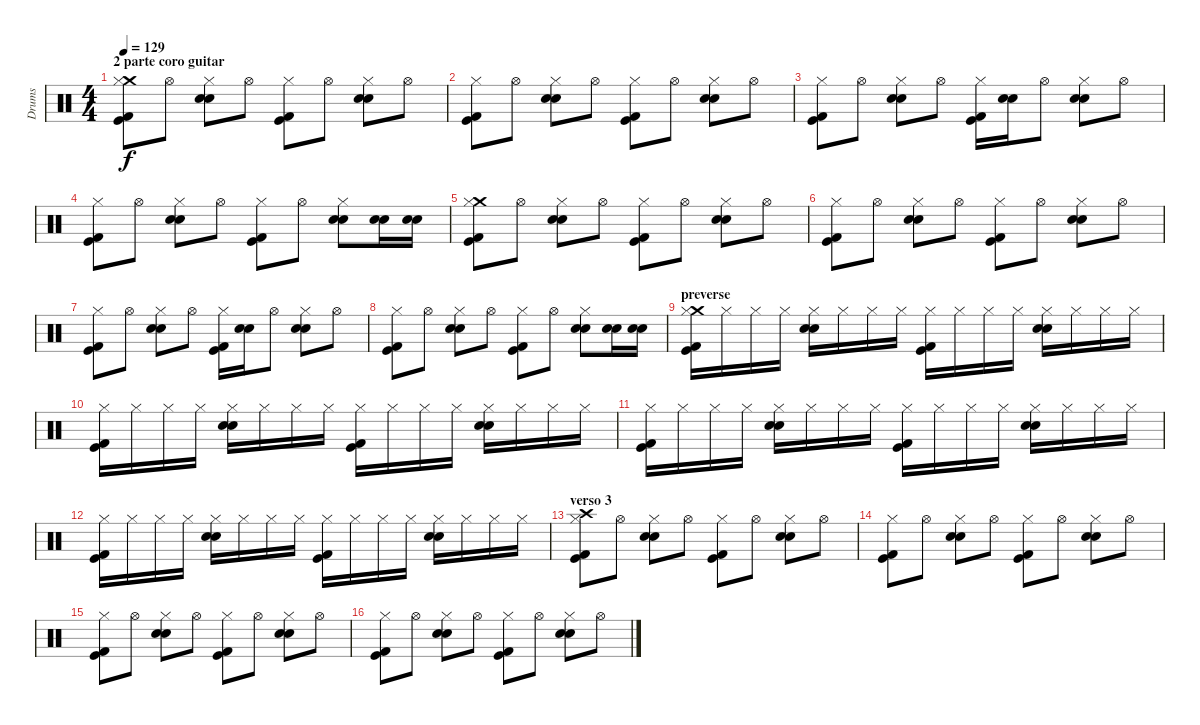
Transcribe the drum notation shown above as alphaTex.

\track ("Drums" "Drums") {instrument percussion}
\staff {score}
\articulation defaults
\ts (4 4)
\section ("" "2 parte coro guitar")
\tempo 129
\clef neutral
\ks c
("Crash medium (hit)" "Hi-Hat (closed)" "Kick (hit) 2" "Kick (hit)").8{dy f} "Hi-Hat (open)".8 ("Hi-Hat (closed)" "Snare (hit) 2" "Snare (hit) 2").8 "Hi-Hat (open)".8 ("Hi-Hat (closed)" "Kick (hit) 2" "Kick (hit)").8 "Hi-Hat (open)".8 ("Hi-Hat (closed)" "Snare (hit) 2" "Snare (hit) 2").8 "Hi-Hat (open)".8 |
("Hi-Hat (closed)" "Kick (hit) 2" "Kick (hit)").8 "Hi-Hat (open)".8 ("Hi-Hat (closed)" "Snare (hit) 2" "Snare (hit) 2").8 "Hi-Hat (open)".8 ("Hi-Hat (closed)" "Kick (hit) 2" "Kick (hit)").8 "Hi-Hat (open)".8 ("Hi-Hat (closed)" "Snare (hit) 2" "Snare (hit) 2").8 "Hi-Hat (open)".8 |
("Hi-Hat (closed)" "Kick (hit) 2" "Kick (hit)").8 "Hi-Hat (open)".8 ("Hi-Hat (closed)" "Snare (hit) 2" "Snare (hit) 2").8 "Hi-Hat (open)".8 ("Hi-Hat (closed)" "Kick (hit) 2" "Kick (hit)").16 ("Snare (hit) 2" "Snare (hit) 2").16 "Hi-Hat (open)".8 ("Hi-Hat (closed)" "Snare (hit) 2" "Snare (hit) 2").8 "Hi-Hat (open)".8 |
("Hi-Hat (closed)" "Kick (hit) 2" "Kick (hit)").8 "Hi-Hat (open)".8 ("Hi-Hat (closed)" "Snare (hit) 2" "Snare (hit) 2").8 "Hi-Hat (open)".8 ("Hi-Hat (closed)" "Kick (hit) 2" "Kick (hit)").8 "Hi-Hat (open)".8 ("Hi-Hat (closed)" "Snare (hit) 2" "Snare (hit) 2").8 ("Snare (hit) 2" "Snare (hit) 2").16 ("Snare (hit) 2" "Snare (hit) 2").16 |
("Crash medium (hit)" "Hi-Hat (closed)" "Kick (hit) 2" "Kick (hit)").8 "Hi-Hat (open)".8 ("Hi-Hat (closed)" "Snare (hit) 2" "Snare (hit) 2").8 "Hi-Hat (open)".8 ("Hi-Hat (closed)" "Kick (hit) 2" "Kick (hit)").8 "Hi-Hat (open)".8 ("Hi-Hat (closed)" "Snare (hit) 2" "Snare (hit) 2").8 "Hi-Hat (open)".8 |
("Hi-Hat (closed)" "Kick (hit) 2" "Kick (hit)").8 "Hi-Hat (open)".8 ("Hi-Hat (closed)" "Snare (hit) 2" "Snare (hit) 2").8 "Hi-Hat (open)".8 ("Hi-Hat (closed)" "Kick (hit) 2" "Kick (hit)").8 "Hi-Hat (open)".8 ("Hi-Hat (closed)" "Snare (hit) 2" "Snare (hit) 2").8 "Hi-Hat (open)".8 |
("Hi-Hat (closed)" "Kick (hit) 2" "Kick (hit)").8 "Hi-Hat (open)".8 ("Hi-Hat (closed)" "Snare (hit) 2" "Snare (hit) 2").8 "Hi-Hat (open)".8 ("Hi-Hat (closed)" "Kick (hit) 2" "Kick (hit)").16 ("Snare (hit) 2" "Snare (hit) 2").16 "Hi-Hat (open)".8 ("Hi-Hat (closed)" "Snare (hit) 2" "Snare (hit) 2").8 "Hi-Hat (open)".8 |
("Hi-Hat (closed)" "Kick (hit) 2" "Kick (hit)").8 "Hi-Hat (open)".8 ("Hi-Hat (closed)" "Snare (hit) 2" "Snare (hit) 2").8 "Hi-Hat (open)".8 ("Hi-Hat (closed)" "Kick (hit) 2" "Kick (hit)").8 "Hi-Hat (open)".8 ("Hi-Hat (closed)" "Snare (hit) 2" "Snare (hit) 2").8 ("Snare (hit) 2" "Snare (hit) 2").16 ("Snare (hit) 2" "Snare (hit) 2").16 |
\section ("" "preverse")
("Crash medium (hit)" "Hi-Hat (closed)" "Kick (hit) 2" "Kick (hit)").16 "Hi-Hat (closed)".16 "Hi-Hat (closed)".16 "Hi-Hat (closed)".16 ("Hi-Hat (closed)" "Snare (hit) 2" "Snare (hit) 2").16 "Hi-Hat (closed)".16 "Hi-Hat (closed)".16 "Hi-Hat (closed)".16 ("Hi-Hat (closed)" "Kick (hit) 2" "Kick (hit)").16 "Hi-Hat (closed)".16 "Hi-Hat (closed)".16 "Hi-Hat (closed)".16 ("Hi-Hat (closed)" "Snare (hit) 2" "Snare (hit) 2").16 "Hi-Hat (closed)".16 "Hi-Hat (closed)".16 "Hi-Hat (closed)".16 |
("Hi-Hat (closed)" "Kick (hit) 2" "Kick (hit)").16 "Hi-Hat (closed)".16 "Hi-Hat (closed)".16 "Hi-Hat (closed)".16 ("Hi-Hat (closed)" "Snare (hit) 2" "Snare (hit) 2").16 "Hi-Hat (closed)".16 "Hi-Hat (closed)".16 "Hi-Hat (closed)".16 ("Hi-Hat (closed)" "Kick (hit) 2" "Kick (hit)").16 "Hi-Hat (closed)".16 "Hi-Hat (closed)".16 "Hi-Hat (closed)".16 ("Hi-Hat (closed)" "Snare (hit) 2" "Snare (hit) 2").16 "Hi-Hat (closed)".16 "Hi-Hat (closed)".16 "Hi-Hat (closed)".16 |
("Hi-Hat (closed)" "Kick (hit) 2" "Kick (hit)").16 "Hi-Hat (closed)".16 "Hi-Hat (closed)".16 "Hi-Hat (closed)".16 ("Hi-Hat (closed)" "Snare (hit) 2" "Snare (hit) 2").16 "Hi-Hat (closed)".16 "Hi-Hat (closed)".16 "Hi-Hat (closed)".16 ("Hi-Hat (closed)" "Kick (hit) 2" "Kick (hit)").16 "Hi-Hat (closed)".16 "Hi-Hat (closed)".16 "Hi-Hat (closed)".16 ("Hi-Hat (closed)" "Snare (hit) 2" "Snare (hit) 2").16 "Hi-Hat (closed)".16 "Hi-Hat (closed)".16 "Hi-Hat (closed)".16 |
("Hi-Hat (closed)" "Kick (hit) 2" "Kick (hit)").16 "Hi-Hat (closed)".16 "Hi-Hat (closed)".16 "Hi-Hat (closed)".16 ("Hi-Hat (closed)" "Snare (hit) 2" "Snare (hit) 2").16 "Hi-Hat (closed)".16 "Hi-Hat (closed)".16 "Hi-Hat (closed)".16 ("Hi-Hat (closed)" "Kick (hit) 2" "Kick (hit)").16 "Hi-Hat (closed)".16 "Hi-Hat (closed)".16 "Hi-Hat (closed)".16 ("Hi-Hat (closed)" "Snare (hit) 2" "Snare (hit) 2").16 "Hi-Hat (closed)".16 "Hi-Hat (closed)".16 "Hi-Hat (closed)".16 |
\section ("" "verso 3")
("Crash high (hit)" "Hi-Hat (closed)" "Kick (hit) 2" "Kick (hit)").8 "Hi-Hat (open)".8 ("Hi-Hat (closed)" "Snare (hit) 2" "Snare (hit) 2").8 "Hi-Hat (open)".8 ("Hi-Hat (closed)" "Kick (hit) 2" "Kick (hit)").8 "Hi-Hat (open)".8 ("Hi-Hat (closed)" "Snare (hit) 2" "Snare (hit) 2").8 "Hi-Hat (open)".8 |
("Hi-Hat (closed)" "Kick (hit) 2" "Kick (hit)").8 "Hi-Hat (open)".8 ("Hi-Hat (closed)" "Snare (hit) 2" "Snare (hit) 2").8 "Hi-Hat (open)".8 ("Hi-Hat (closed)" "Kick (hit) 2" "Kick (hit)").8 "Hi-Hat (open)".8 ("Hi-Hat (closed)" "Snare (hit) 2" "Snare (hit) 2").8 "Hi-Hat (open)".8 |
("Hi-Hat (closed)" "Kick (hit) 2" "Kick (hit)").8 "Hi-Hat (open)".8 ("Hi-Hat (closed)" "Snare (hit) 2" "Snare (hit) 2").8 "Hi-Hat (open)".8 ("Hi-Hat (closed)" "Kick (hit) 2" "Kick (hit)").8 "Hi-Hat (open)".8 ("Hi-Hat (closed)" "Snare (hit) 2" "Snare (hit) 2").8 "Hi-Hat (open)".8 |
("Hi-Hat (closed)" "Kick (hit) 2" "Kick (hit)").8 "Hi-Hat (open)".8 ("Hi-Hat (closed)" "Snare (hit) 2" "Snare (hit) 2").8 "Hi-Hat (open)".8 ("Hi-Hat (closed)" "Kick (hit) 2" "Kick (hit)").8 "Hi-Hat (open)".8 ("Hi-Hat (closed)" "Snare (hit) 2" "Snare (hit) 2").8 "Hi-Hat (open)".8
